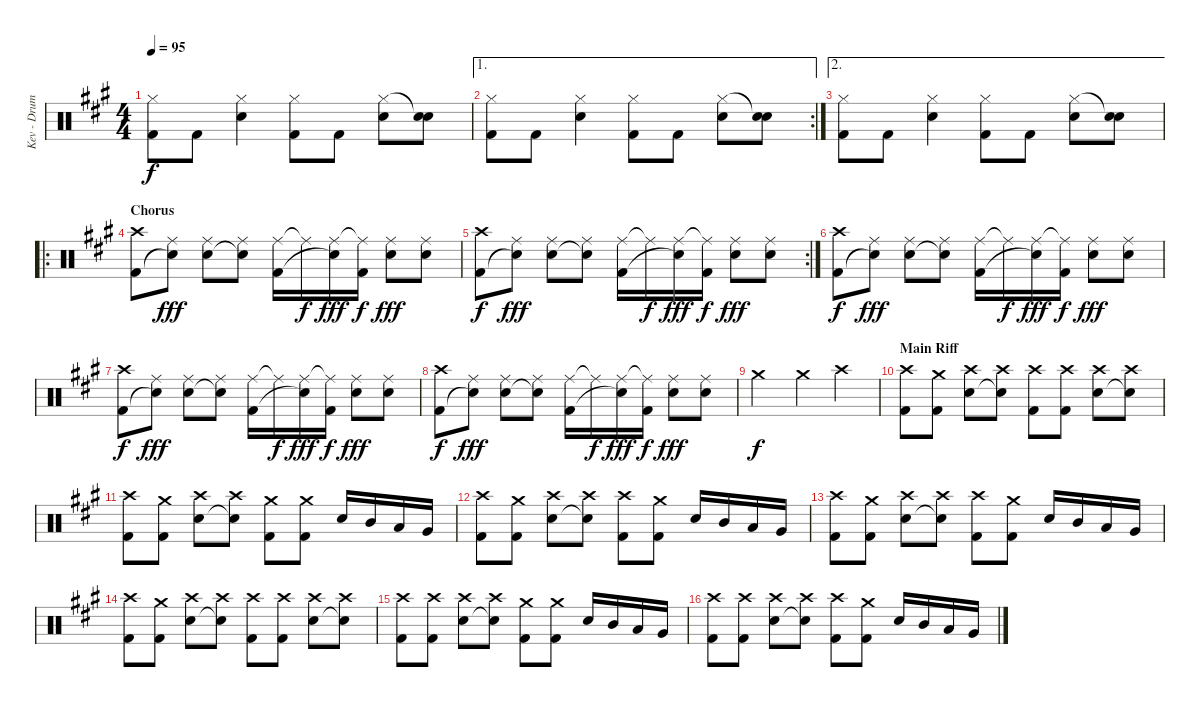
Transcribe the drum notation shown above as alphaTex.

\track ("Kev - Drums" "Kev - Drum") {instrument percussion}
\staff {score}
\articulation defaults
\ts (4 4)
\tempo 95
\clef neutral
\ks a
("Hi-Hat (closed)" "Kick (hit) 2").8{dy f} "Kick (hit) 2".8 ("Hi-Hat (closed)" "Snare (hit) 2").4 ("Hi-Hat (closed)" "Kick (hit) 2").8 "Kick (hit) 2".8 ("Hi-Hat (closed)" "Snare (hit) 2").8 ("Snare (hit)"{t} "Snare (hit) 2").8 |
\ae 1
\rc 2
("Hi-Hat (closed)" "Kick (hit) 2").8 "Kick (hit) 2".8 ("Hi-Hat (closed)" "Snare (hit) 2").4 ("Hi-Hat (closed)" "Kick (hit) 2").8 "Kick (hit) 2".8 ("Hi-Hat (closed)" "Snare (hit) 2").8 ("Snare (hit)"{t} "Snare (hit) 2").8 |
\ae 2
("Hi-Hat (closed)" "Kick (hit) 2").8 "Kick (hit) 2".8 ("Hi-Hat (closed)" "Snare (hit) 2").4 ("Hi-Hat (closed)" "Kick (hit) 2").8 "Kick (hit) 2".8 ("Hi-Hat (closed)" "Snare (hit) 2").8 ("Snare (hit)"{t} "Snare (hit) 2").8 |
\ro
\section ("" "Chorus")
("Crash high (hit)" "Kick (hit) 2").8 ("Ride (middle)" "Snare (hit)"{t}).8{dy fff} ("Ride (middle)" "Snare (hit) 2").8 ("Ride (middle)" "Snare (hit)"{t}).8 ("Ride (middle)" "Kick (hit) 2").16 "Ride (middle)"{t}.16{dy f} ("Ride (middle)" "Snare (hit)"{t}).16{dy fff} ("Ride (middle)"{t} "Kick (hit) 2").16{dy f} ("Ride (middle)" "Snare (hit) 2").8{dy fff} ("Ride (middle)" "Snare (hit) 2").8 |
\rc 2
("Crash high (hit)" "Kick (hit) 2").8{dy f} ("Ride (middle)" "Snare (hit)"{t}).8{dy fff} ("Ride (middle)" "Snare (hit) 2").8 ("Ride (middle)" "Snare (hit)"{t}).8 ("Ride (middle)" "Kick (hit) 2").16 "Ride (middle)"{t}.16{dy f} ("Ride (middle)" "Snare (hit)"{t}).16{dy fff} ("Ride (middle)"{t} "Kick (hit) 2").16{dy f} ("Ride (middle)" "Snare (hit) 2").8{dy fff} ("Ride (middle)" "Snare (hit) 2").8 |
("Crash high (hit)" "Kick (hit) 2").8{dy f} ("Ride (middle)" "Snare (hit)"{t}).8{dy fff} ("Ride (middle)" "Snare (hit) 2").8 ("Ride (middle)" "Snare (hit)"{t}).8 ("Ride (middle)" "Kick (hit) 2").16 "Ride (middle)"{t}.16{dy f} ("Ride (middle)" "Snare (hit)"{t}).16{dy fff} ("Ride (middle)"{t} "Kick (hit) 2").16{dy f} ("Ride (middle)" "Snare (hit) 2").8{dy fff} ("Ride (middle)" "Snare (hit) 2").8 |
("Crash high (hit)" "Kick (hit) 2").8{dy f} ("Ride (middle)" "Snare (hit)"{t}).8{dy fff} ("Ride (middle)" "Snare (hit) 2").8 ("Ride (middle)" "Snare (hit)"{t}).8 ("Ride (middle)" "Kick (hit) 2").16 "Ride (middle)"{t}.16{dy f} ("Ride (middle)" "Snare (hit)"{t}).16{dy fff} ("Ride (middle)"{t} "Kick (hit) 2").16{dy f} ("Ride (middle)" "Snare (hit) 2").8{dy fff} ("Ride (middle)" "Snare (hit) 2").8 |
("Crash high (hit)" "Kick (hit) 2").8{dy f} ("Ride (middle)" "Snare (hit)"{t}).8{dy fff} ("Ride (middle)" "Snare (hit) 2").8 ("Ride (middle)" "Snare (hit)"{t}).8 ("Ride (middle)" "Kick (hit) 2").16 "Ride (middle)"{t}.16{dy f} ("Ride (middle)" "Snare (hit)"{t}).16{dy fff} ("Ride (middle)"{t} "Kick (hit) 2").16{dy f} ("Ride (middle)" "Snare (hit) 2").8{dy fff} ("Ride (middle)" "Snare (hit) 2").8 |
"Crash medium (hit)".2{dy f} "Crash medium (hit)".4 "Crash high (hit)".4 |
\section ("" "Main Riff")
("Crash high (hit)" "Kick (hit) 2").8 ("Crash medium (hit)" "Kick (hit) 2").8 ("Crash high (hit)" "Snare (hit) 2").8 ("Crash high (hit)" "Snare (hit)"{t}).8 ("Crash high (hit)" "Kick (hit) 2").8 ("Crash high (hit)" "Kick (hit) 2").8 ("Crash high (hit)" "Snare (hit) 2").8 ("Crash high (hit)" "Snare (hit)"{t}).8 |
("Crash high (hit)" "Kick (hit) 2").8 ("Crash medium (hit)" "Kick (hit) 2").8 ("Crash high (hit)" "Snare (hit) 2").8 ("Crash high (hit)" "Snare (hit)"{t}).8 ("Crash medium (hit)" "Kick (hit) 2").8 ("Crash medium (hit)" "Kick (hit) 2").8 "Snare (hit) 2".16 "Mid Tom (hit)".16 "Low Tom (hit)".16 "Very Low Tom (hit)".16 |
("Crash high (hit)" "Kick (hit) 2").8 ("Crash medium (hit)" "Kick (hit) 2").8 ("Crash high (hit)" "Snare (hit) 2").8 ("Crash high (hit)" "Snare (hit)"{t}).8 ("Crash high (hit)" "Kick (hit) 2").8 ("Crash medium (hit)" "Kick (hit) 2").8 "Snare (hit) 2".16 "Mid Tom (hit)".16 "Low Tom (hit)".16 "Very Low Tom (hit)".16 |
("Crash high (hit)" "Kick (hit) 2").8 ("Crash medium (hit)" "Kick (hit) 2").8 ("Crash high (hit)" "Snare (hit) 2").8 ("Crash high (hit)" "Snare (hit)"{t}).8 ("Crash high (hit)" "Kick (hit) 2").8 ("Crash medium (hit)" "Kick (hit) 2").8 "Snare (hit) 2".16 "Mid Tom (hit)".16 "Low Tom (hit)".16 "Very Low Tom (hit)".16 |
("Crash high (hit)" "Kick (hit) 2").8 ("Crash medium (hit)" "Kick (hit) 2").8 ("Crash high (hit)" "Snare (hit) 2").8 ("Crash high (hit)" "Snare (hit)"{t}).8 ("Crash high (hit)" "Kick (hit) 2").8 ("Crash high (hit)" "Kick (hit) 2").8 ("Crash high (hit)" "Snare (hit) 2").8 ("Crash high (hit)" "Snare (hit)"{t}).8 |
("Crash high (hit)" "Kick (hit) 2").8 ("Crash high (hit)" "Kick (hit) 2").8 ("Crash high (hit)" "Snare (hit) 2").8 ("Crash high (hit)" "Snare (hit)"{t}).8 ("Crash medium (hit)" "Kick (hit) 2").8 ("Crash medium (hit)" "Kick (hit) 2").8 "Snare (hit) 2".16 "Mid Tom (hit)".16 "Low Tom (hit)".16 "Very Low Tom (hit)".16 |
("Crash high (hit)" "Kick (hit) 2").8 ("Crash high (hit)" "Kick (hit) 2").8 ("Crash high (hit)" "Snare (hit) 2").8 ("Crash high (hit)" "Snare (hit)"{t}).8 ("Crash high (hit)" "Kick (hit) 2").8 ("Crash medium (hit)" "Kick (hit) 2").8 "Snare (hit) 2".16 "Mid Tom (hit)".16 "Low Tom (hit)".16 "Very Low Tom (hit)".16
